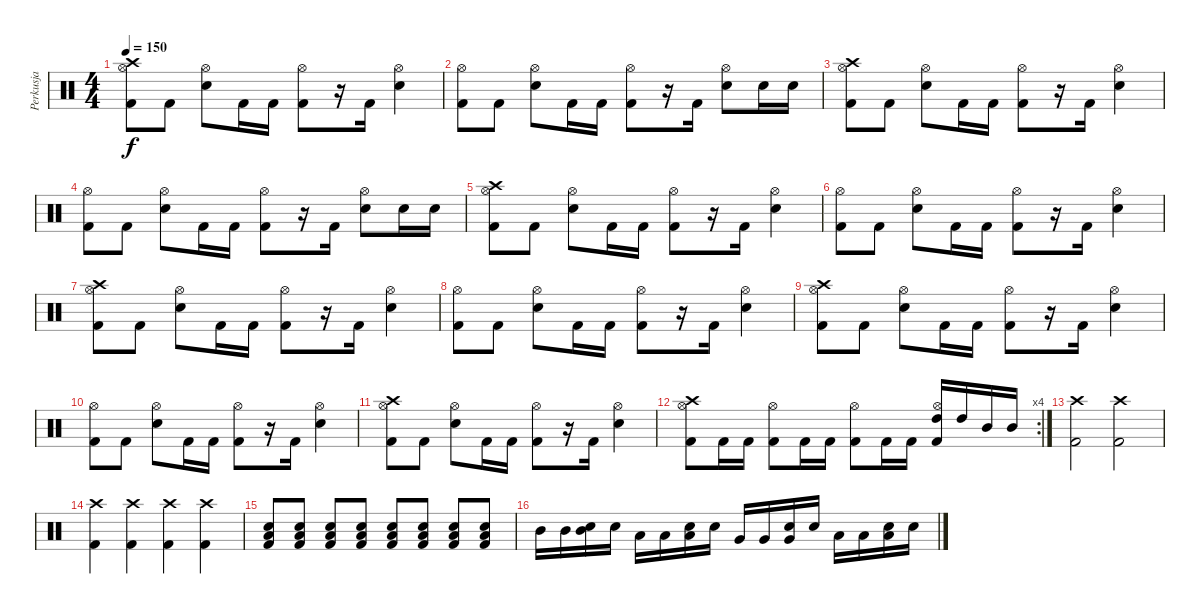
\track ("Perkusja" "Perkusja") {instrument percussion}
\staff {score}
\articulation defaults
\ts (4 4)
\tempo 150
\clef neutral
\ks c
("Kick (hit) 2" "Hi-Hat (open)" "Crash high (hit)").8{dy f} "Kick (hit) 2".8 ("Electric Snare (hit)" "Hi-Hat (open)").8 "Kick (hit) 2".16 "Kick (hit) 2".16 ("Kick (hit) 2" "Hi-Hat (open)").8 r.16 "Kick (hit) 2".16 ("Electric Snare (hit)" "Hi-Hat (open)").4 |
("Kick (hit) 2" "Hi-Hat (open)").8 "Kick (hit) 2".8 ("Electric Snare (hit)" "Hi-Hat (open)").8 "Kick (hit) 2".16 "Kick (hit) 2".16 ("Kick (hit) 2" "Hi-Hat (open)").8 r.16 "Kick (hit) 2".16 ("Electric Snare (hit)" "Hi-Hat (open)").8 "Electric Snare (hit)".16 "Electric Snare (hit)".16 |
("Kick (hit) 2" "Hi-Hat (open)" "Crash high (hit)").8 "Kick (hit) 2".8 ("Electric Snare (hit)" "Hi-Hat (open)").8 "Kick (hit) 2".16 "Kick (hit) 2".16 ("Kick (hit) 2" "Hi-Hat (open)").8 r.16 "Kick (hit) 2".16 ("Electric Snare (hit)" "Hi-Hat (open)").4 |
("Kick (hit) 2" "Hi-Hat (open)").8 "Kick (hit) 2".8 ("Electric Snare (hit)" "Hi-Hat (open)").8 "Kick (hit) 2".16 "Kick (hit) 2".16 ("Kick (hit) 2" "Hi-Hat (open)").8 r.16 "Kick (hit) 2".16 ("Electric Snare (hit)" "Hi-Hat (open)").8 "Electric Snare (hit)".16 "Electric Snare (hit)".16 |
("Kick (hit) 2" "Hi-Hat (open)" "Crash high (hit)").8 "Kick (hit) 2".8 ("Electric Snare (hit)" "Hi-Hat (open)").8 "Kick (hit) 2".16 "Kick (hit) 2".16 ("Kick (hit) 2" "Hi-Hat (open)").8 r.16 "Kick (hit) 2".16 ("Electric Snare (hit)" "Hi-Hat (open)").4 |
("Kick (hit) 2" "Hi-Hat (open)").8 "Kick (hit) 2".8 ("Electric Snare (hit)" "Hi-Hat (open)").8 "Kick (hit) 2".16 "Kick (hit) 2".16 ("Kick (hit) 2" "Hi-Hat (open)").8 r.16 "Kick (hit) 2".16 ("Electric Snare (hit)" "Hi-Hat (open)").4 |
("Kick (hit) 2" "Hi-Hat (open)" "Crash high (hit)").8 "Kick (hit) 2".8 ("Electric Snare (hit)" "Hi-Hat (open)").8 "Kick (hit) 2".16 "Kick (hit) 2".16 ("Kick (hit) 2" "Hi-Hat (open)").8 r.16 "Kick (hit) 2".16 ("Electric Snare (hit)" "Hi-Hat (open)").4 |
("Kick (hit) 2" "Hi-Hat (open)").8 "Kick (hit) 2".8 ("Electric Snare (hit)" "Hi-Hat (open)").8 "Kick (hit) 2".16 "Kick (hit) 2".16 ("Kick (hit) 2" "Hi-Hat (open)").8 r.16 "Kick (hit) 2".16 ("Electric Snare (hit)" "Hi-Hat (open)").4 |
("Kick (hit) 2" "Hi-Hat (open)" "Crash high (hit)").8 "Kick (hit) 2".8 ("Electric Snare (hit)" "Hi-Hat (open)").8 "Kick (hit) 2".16 "Kick (hit) 2".16 ("Kick (hit) 2" "Hi-Hat (open)").8 r.16 "Kick (hit) 2".16 ("Electric Snare (hit)" "Hi-Hat (open)").4 |
("Kick (hit) 2" "Hi-Hat (open)").8 "Kick (hit) 2".8 ("Electric Snare (hit)" "Hi-Hat (open)").8 "Kick (hit) 2".16 "Kick (hit) 2".16 ("Kick (hit) 2" "Hi-Hat (open)").8 r.16 "Kick (hit) 2".16 ("Electric Snare (hit)" "Hi-Hat (open)").4 |
("Kick (hit) 2" "Hi-Hat (open)" "Crash high (hit)").8 "Kick (hit) 2".8 ("Electric Snare (hit)" "Hi-Hat (open)").8 "Kick (hit) 2".16 "Kick (hit) 2".16 ("Kick (hit) 2" "Hi-Hat (open)").8 r.16 "Kick (hit) 2".16 ("Electric Snare (hit)" "Hi-Hat (open)").4 |
\rc 4
("Kick (hit) 2" "Hi-Hat (open)" "Crash high (hit)").8 "Kick (hit) 2".16 "Kick (hit) 2".16 ("Kick (hit) 2" "Hi-Hat (open)").8 "Kick (hit) 2".16 "Kick (hit) 2".16 ("Kick (hit) 2" "Hi-Hat (open)").8 "Kick (hit) 2".16 "Kick (hit) 2".16 ("Kick (hit) 2" "Hi-Hat (open)" "High Tom (hit)").16 "High Tom (hit)".16 "Mid Tom (hit)".16 "Mid Tom (hit)".16 |
("Kick (hit) 2" "Crash high (hit)").2 ("Kick (hit) 2" "Crash high (hit)").2 |
("Kick (hit) 2" "Crash high (hit)").4 ("Kick (hit) 2" "Crash high (hit)").4 ("Kick (hit) 2" "Crash high (hit)").4 ("Kick (hit) 2" "Crash high (hit)").4 |
("Electric Snare (hit)" "Low Floor Tom (hit)" "Kick (hit) 2").8 ("Electric Snare (hit)" "Low Floor Tom (hit)" "Kick (hit) 2").8 ("Electric Snare (hit)" "Low Floor Tom (hit)" "Kick (hit) 2").8 ("Electric Snare (hit)" "Low Floor Tom (hit)" "Kick (hit) 2").8 ("Electric Snare (hit)" "Low Floor Tom (hit)" "Kick (hit) 2").8 ("Electric Snare (hit)" "Low Floor Tom (hit)" "Kick (hit) 2").8 ("Electric Snare (hit)" "Low Floor Tom (hit)" "Kick (hit) 2").8 ("Electric Snare (hit)" "Low Floor Tom (hit)" "Kick (hit) 2").8 |
"Mid Tom (hit)".16 "Mid Tom (hit)".16 ("Mid Tom (hit)" "Snare (hit) 2").16 "Snare (hit) 2".16 "Low Tom (hit)".16 "Low Tom (hit)".16 ("Low Tom (hit)" "Snare (hit) 2").16 "Snare (hit) 2".16 "Very Low Tom (hit)".16 "Very Low Tom (hit)".16 ("Very Low Tom (hit)" "Snare (hit) 2").16 "Snare (hit) 2".16 "Low Floor Tom (hit)".16 "Low Floor Tom (hit)".16 ("Low Floor Tom (hit)" "Snare (hit) 2").16 "Snare (hit) 2".16
